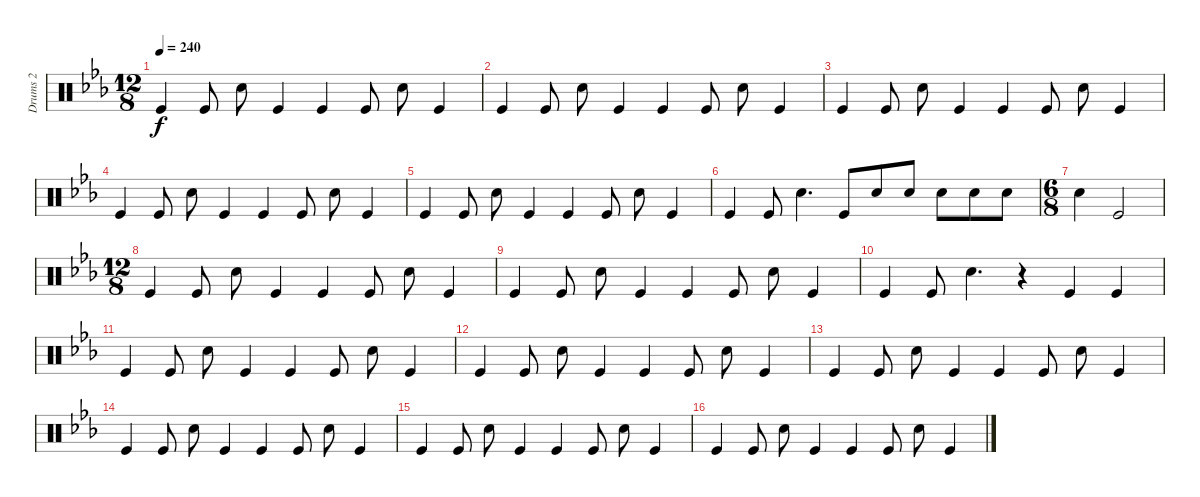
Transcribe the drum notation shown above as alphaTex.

\track ("Drums 2" "Drums 2") {instrument percussion}
\staff {score}
\articulation defaults
\ts (12 8)
\tempo 240
\clef neutral
\ks eb "Kick (hit)".4{dy f} "Kick (hit)".8 "Snare (hit) 2".8 "Kick (hit)".4 "Kick (hit)".4 "Kick (hit)".8 "Snare (hit) 2".8 "Kick (hit)".4
|
"Kick (hit)".4 "Kick (hit)".8 "Snare (hit) 2".8 "Kick (hit)".4 "Kick (hit)".4 "Kick (hit)".8 "Snare (hit) 2".8 "Kick (hit)".4 |
"Kick (hit)".4 "Kick (hit)".8 "Snare (hit) 2".8 "Kick (hit)".4 "Kick (hit)".4 "Kick (hit)".8 "Snare (hit) 2".8 "Kick (hit)".4 |
"Kick (hit)".4 "Kick (hit)".8 "Snare (hit) 2".8 "Kick (hit)".4 "Kick (hit)".4 "Kick (hit)".8 "Snare (hit) 2".8 "Kick (hit)".4 |
"Kick (hit)".4 "Kick (hit)".8 "Snare (hit) 2".8 "Kick (hit)".4 "Kick (hit)".4 "Kick (hit)".8 "Snare (hit) 2".8 "Kick (hit)".4 |
"Kick (hit)".4 "Kick (hit)".8 "Snare (hit) 2".4{d} "Kick (hit)".8 "Snare (hit) 2".8 "Snare (hit) 2".8 "Snare (hit) 2".8 "Snare (hit) 2".8 "Snare (hit) 2".8 |
\ts (6 8)
"Snare (hit) 2".4 "Kick (hit)".2 |
\ts (12 8)
"Kick (hit)".4 "Kick (hit)".8 "Snare (hit) 2".8 "Kick (hit)".4 "Kick (hit)".4 "Kick (hit)".8 "Snare (hit) 2".8 "Kick (hit)".4 |
"Kick (hit)".4 "Kick (hit)".8 "Snare (hit) 2".8 "Kick (hit)".4 "Kick (hit)".4 "Kick (hit)".8 "Snare (hit) 2".8 "Kick (hit)".4 |
"Kick (hit)".4 "Kick (hit)".8 "Snare (hit) 2".4{d} r.4 "Kick (hit)".4 "Kick (hit)".4 |
"Kick (hit)".4 "Kick (hit)".8 "Snare (hit) 2".8 "Kick (hit)".4 "Kick (hit)".4 "Kick (hit)".8 "Snare (hit) 2".8 "Kick (hit)".4 |
"Kick (hit)".4 "Kick (hit)".8 "Snare (hit) 2".8 "Kick (hit)".4 "Kick (hit)".4 "Kick (hit)".8 "Snare (hit) 2".8 "Kick (hit)".4 |
"Kick (hit)".4 "Kick (hit)".8 "Snare (hit) 2".8 "Kick (hit)".4 "Kick (hit)".4 "Kick (hit)".8 "Snare (hit) 2".8 "Kick (hit)".4 |
"Kick (hit)".4 "Kick (hit)".8 "Snare (hit) 2".8 "Kick (hit)".4 "Kick (hit)".4 "Kick (hit)".8 "Snare (hit) 2".8 "Kick (hit)".4 |
"Kick (hit)".4 "Kick (hit)".8 "Snare (hit) 2".8 "Kick (hit)".4 "Kick (hit)".4 "Kick (hit)".8 "Snare (hit) 2".8 "Kick (hit)".4 |
"Kick (hit)".4 "Kick (hit)".8 "Snare (hit) 2".8 "Kick (hit)".4 "Kick (hit)".4 "Kick (hit)".8 "Snare (hit) 2".8 "Kick (hit)".4
